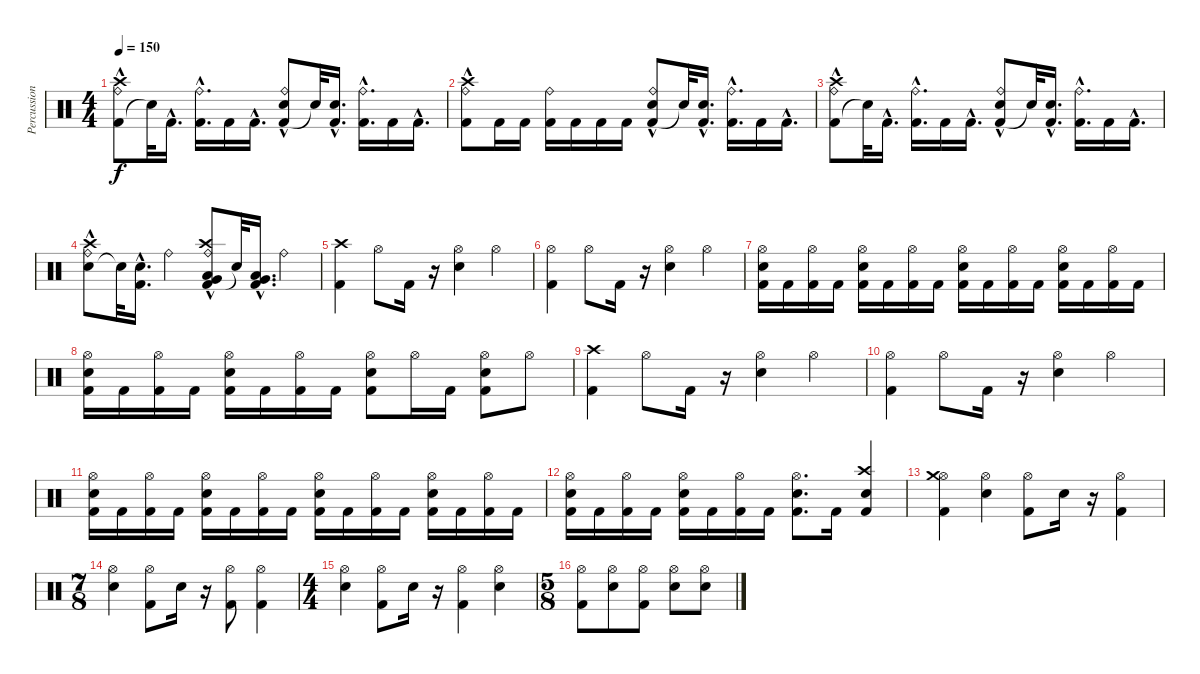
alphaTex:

\track ("Percussion" "Percussion") {instrument percussion}
\staff {score}
\articulation defaults
\ts (4 4)
\tempo 150
\clef neutral
\ks c
("Kick (hit) 2"{hac} "Crash high (hit)"{hac} "Ride (bell)").8{dy f} "Snare (hit)"{t}.32 "Kick (hit) 2"{hac}.16{d} ("Kick (hit) 2"{hac} "Ride (bell)").16{d} "Kick (hit) 2".16 "Kick (hit) 2"{hac}.16{d} ("Kick (hit) 2"{hac} "Electric Snare (hit)"{hac} "Ride (bell)").8 "Snare (hit)"{t}.32 ("Kick (hit) 2"{hac} "Electric Snare (hit)"{hac}).16{d} ("Kick (hit) 2"{hac} "Ride (bell)").16{d} "Kick (hit) 2".16 "Kick (hit) 2"{hac}.16{d} |
("Kick (hit) 2" "Crash high (hit)"{hac} "Ride (bell)").8 "Kick (hit) 2".16 "Kick (hit) 2".16 ("Kick (hit) 2" "Ride (bell)").16 "Kick (hit) 2".16 "Kick (hit) 2".16 "Kick (hit) 2".16 ("Kick (hit) 2"{hac} "Electric Snare (hit)"{hac} "Ride (bell)").8 "Snare (hit)"{t}.32 ("Kick (hit) 2"{hac} "Electric Snare (hit)"{hac}).16{d} ("Kick (hit) 2"{hac} "Ride (bell)").16{d} "Kick (hit) 2".16 "Kick (hit) 2"{hac}.16{d} |
("Kick (hit) 2"{hac} "Crash high (hit)"{hac} "Ride (bell)").8 "Snare (hit)"{t}.32 "Kick (hit) 2"{hac}.16{d} ("Kick (hit) 2"{hac} "Ride (bell)").16{d} "Kick (hit) 2".16 "Kick (hit) 2"{hac}.16{d} ("Kick (hit) 2"{hac} "Electric Snare (hit)"{hac} "Ride (bell)").8 "Snare (hit)"{t}.32 ("Kick (hit) 2"{hac} "Electric Snare (hit)"{hac}).16{d} ("Kick (hit) 2"{hac} "Ride (bell)").16{d} "Kick (hit) 2".16 "Kick (hit) 2"{hac}.16{d} |
("Electric Snare (hit)"{hac} "Crash high (hit)"{hac} "Ride (bell)").8 "Snare (hit)"{t}.32 ("Kick (hit) 2"{hac} "Electric Snare (hit)"{hac}).16{d} "Ride (bell)".4 ("Kick (hit) 2"{hac} "Very Low Tom (hit)"{hac} "Low Tom (hit)"{hac} "Crash high (hit)"{hac} "Ride (bell)").8 "Snare (hit)"{t}.32 ("Kick (hit) 2"{hac} "Low Floor Tom (hit)"{hac} "Very Low Tom (hit)"{hac}).16{d} "Ride (bell)".4 |
("Kick (hit) 2" "Crash high (hit)").4 "Hi-Hat (open)".8 "Kick (hit) 2".16 r.16 ("Electric Snare (hit)" "Hi-Hat (open)").4 "Hi-Hat (open)".4 |
("Kick (hit) 2" "Hi-Hat (open)").4 "Hi-Hat (open)".8 "Kick (hit) 2".16 r.16 ("Electric Snare (hit)" "Hi-Hat (open)").4 "Hi-Hat (open)".4 |
("Kick (hit) 2" "Electric Snare (hit)" "Hi-Hat (open)").16 "Kick (hit) 2".16 ("Kick (hit) 2" "Hi-Hat (open)").16 "Kick (hit) 2".16 ("Kick (hit) 2" "Electric Snare (hit)" "Hi-Hat (open)").16 "Kick (hit) 2".16 ("Kick (hit) 2" "Hi-Hat (open)").16 "Kick (hit) 2".16 ("Kick (hit) 2" "Electric Snare (hit)" "Hi-Hat (open)").16 "Kick (hit) 2".16 ("Kick (hit) 2" "Hi-Hat (open)").16 "Kick (hit) 2".16 ("Kick (hit) 2" "Electric Snare (hit)" "Hi-Hat (open)").16 "Kick (hit) 2".16 ("Kick (hit) 2" "Hi-Hat (open)").16 "Kick (hit) 2".16 |
("Kick (hit) 2" "Electric Snare (hit)" "Hi-Hat (open)").16 "Kick (hit) 2".16 ("Kick (hit) 2" "Hi-Hat (open)").16 "Kick (hit) 2".16 ("Kick (hit) 2" "Electric Snare (hit)" "Hi-Hat (open)").16 "Kick (hit) 2".16 ("Kick (hit) 2" "Hi-Hat (open)").16 "Kick (hit) 2".16 ("Kick (hit) 2" "Electric Snare (hit)" "Hi-Hat (open)").8 "Hi-Hat (open)".16 "Kick (hit) 2".16 ("Kick (hit) 2" "Electric Snare (hit)" "Hi-Hat (open)").8 "Hi-Hat (open)".8 |
("Kick (hit) 2" "Crash high (hit)").4 "Hi-Hat (open)".8 "Kick (hit) 2".16 r.16 ("Electric Snare (hit)" "Hi-Hat (open)").4 "Hi-Hat (open)".4 |
("Kick (hit) 2" "Hi-Hat (open)").4 "Hi-Hat (open)".8 "Kick (hit) 2".16 r.16 ("Electric Snare (hit)" "Hi-Hat (open)").4 "Hi-Hat (open)".4 |
("Kick (hit) 2" "Electric Snare (hit)" "Hi-Hat (open)").16 "Kick (hit) 2".16 ("Kick (hit) 2" "Hi-Hat (open)").16 "Kick (hit) 2".16 ("Kick (hit) 2" "Electric Snare (hit)" "Hi-Hat (open)").16 "Kick (hit) 2".16 ("Kick (hit) 2" "Hi-Hat (open)").16 "Kick (hit) 2".16 ("Kick (hit) 2" "Electric Snare (hit)" "Hi-Hat (open)").16 "Kick (hit) 2".16 ("Kick (hit) 2" "Hi-Hat (open)").16 "Kick (hit) 2".16 ("Kick (hit) 2" "Electric Snare (hit)" "Hi-Hat (open)").16 "Kick (hit) 2".16 ("Kick (hit) 2" "Hi-Hat (open)").16 "Kick (hit) 2".16 |
("Kick (hit) 2" "Electric Snare (hit)" "Hi-Hat (open)").16 "Kick (hit) 2".16 ("Kick (hit) 2" "Hi-Hat (open)").16 "Kick (hit) 2".16 ("Kick (hit) 2" "Electric Snare (hit)" "Hi-Hat (open)").16 "Kick (hit) 2".16 ("Kick (hit) 2" "Hi-Hat (open)").16 "Kick (hit) 2".16 ("Kick (hit) 2" "Electric Snare (hit)" "Hi-Hat (open)").8{d} "Kick (hit) 2".16 ("Kick (hit) 2" "Electric Snare (hit)" "Crash high (hit)").4 |
("Kick (hit) 2" "Hi-Hat (open)" "Crash medium (hit)").4 ("Electric Snare (hit)" "Hi-Hat (open)").4 ("Kick (hit) 2" "Hi-Hat (open)").8 "Electric Snare (hit)".16 r.16 ("Kick (hit) 2" "Hi-Hat (open)").4 |
\ts (7 8)
("Electric Snare (hit)" "Hi-Hat (open)").4 ("Kick (hit) 2" "Hi-Hat (open)").8 "Electric Snare (hit)".16 r.16 ("Kick (hit) 2" "Hi-Hat (open)").8 ("Kick (hit) 2" "Hi-Hat (open)").4 |
\ts (4 4)
("Electric Snare (hit)" "Hi-Hat (open)").4 ("Kick (hit) 2" "Hi-Hat (open)").8 "Electric Snare (hit)".16 r.16 ("Kick (hit) 2" "Hi-Hat (open)").4 ("Electric Snare (hit)" "Hi-Hat (open)").4 |
\ts (5 8)
("Kick (hit) 2" "Hi-Hat (open)").8 ("Electric Snare (hit)" "Hi-Hat (open)").8 ("Kick (hit) 2" "Hi-Hat (open)").8 ("Electric Snare (hit)" "Hi-Hat (open)").8 ("Electric Snare (hit)" "Hi-Hat (open)").8
